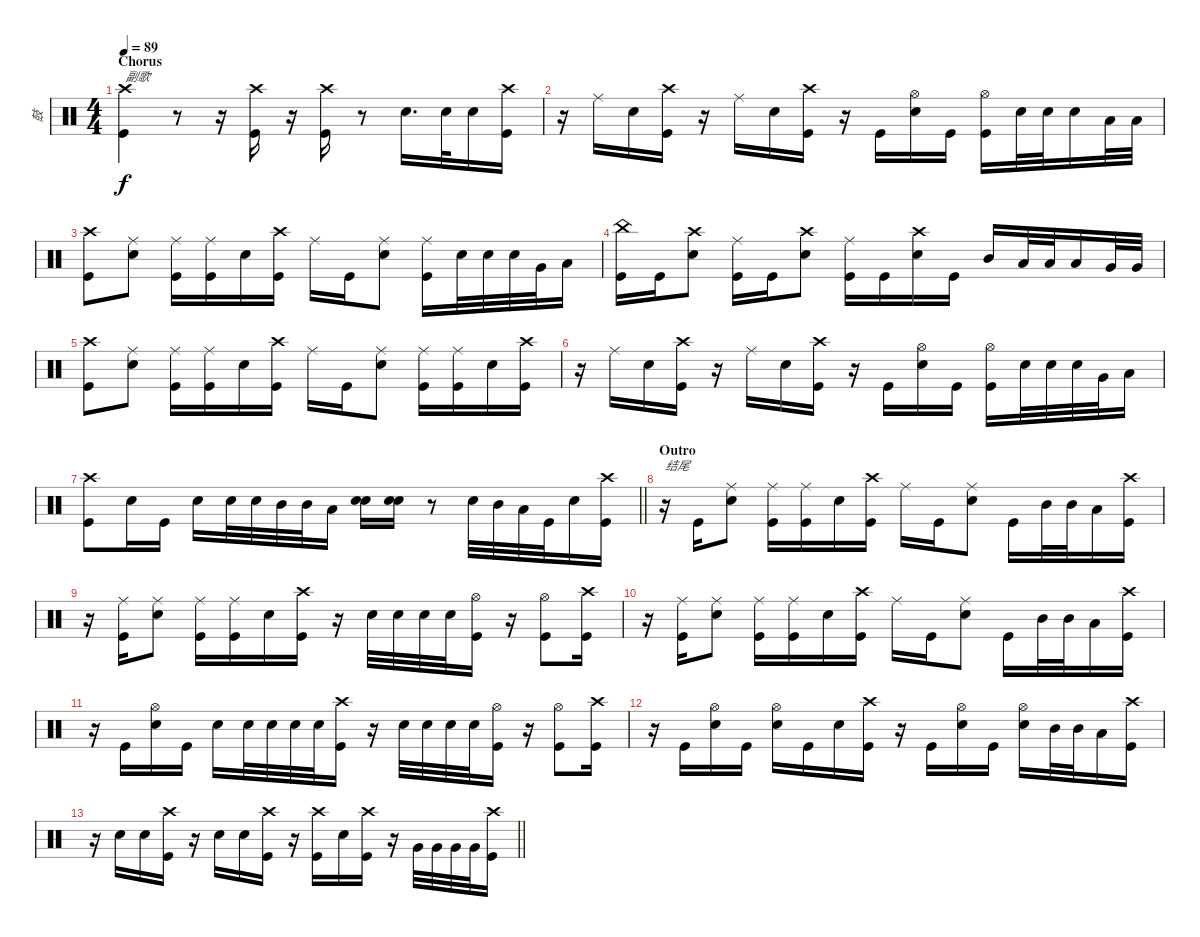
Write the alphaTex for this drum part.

\track ("鼓" "鼓") {instrument percussion}
\staff {score}
\articulation defaults
\ts (4 4)
\section ("" "Chorus")
\tempo 89
\clef neutral
\ks c
("Crash high (hit)" "Kick (hit)").4{txt "副歌" dy f} r.8 r.16 ("Kick (hit)" "Crash high (hit)").16 r.16 ("Kick (hit)" "Crash high (hit)").16 r.8 "Snare (hit) 2".16{d} "Snare (hit) 2".32 "Snare (hit) 2".16 ("Kick (hit)" "Crash high (hit)").16 |
r.16 "Ride (middle)".16 "Snare (hit) 2".16 ("Kick (hit)" "Crash high (hit)").16 r.16 "Ride (middle)".16 "Snare (hit) 2".16 ("Kick (hit)" "Crash high (hit)").16 r.16 "Kick (hit)".16 ("Snare (hit) 2" "Hi-Hat (open)").16 "Kick (hit)".16 ("Kick (hit)" "Hi-Hat (open)").16 "Snare (hit) 2".32 "Snare (hit) 2".32 "Snare (hit) 2".16 "Low Tom (hit)".32 "Low Tom (hit)".32 |
("Crash high (hit)" "Kick (hit)").8 ("Snare (hit) 2" "Ride (middle)").8 ("Kick (hit)" "Ride (middle)").16 ("Kick (hit)" "Ride (middle)").16 "Snare (hit) 2".16 ("Kick (hit)" "Crash high (hit)").16 "Ride (middle)".16 "Kick (hit)".16 ("Snare (hit) 2" "Ride (middle)").8 ("Ride (middle)" "Kick (hit)").16 "Snare (hit) 2".32 "Snare (hit) 2".32 "Snare (hit) 2".32 "Very Low Tom (hit)".32 "Low Floor Tom (hit)".16 |
("China (hit)" "Kick (hit)").16 "Kick (hit)".16 ("Snare (hit) 2" "Crash high (hit)").8 ("Ride (middle)" "Kick (hit)").16 "Kick (hit)".16 ("Snare (hit) 2" "Crash high (hit)").8 ("Ride (middle)" "Kick (hit)").16 "Kick (hit)".16 ("Snare (hit) 2" "Crash high (hit)").16 "Kick (hit)".16 "Mid Tom (hit)".16 "Low Tom (hit)".32 "Low Tom (hit)".32 "Low Tom (hit)".16 "Very Low Tom (hit)".32 "Very Low Tom (hit)".32 |
("Crash high (hit)" "Kick (hit)").8 ("Snare (hit) 2" "Ride (middle)").8 ("Kick (hit)" "Ride (middle)").16 ("Kick (hit)" "Ride (middle)").16 "Snare (hit) 2".16 ("Kick (hit)" "Crash high (hit)").16 "Ride (middle)".16 "Kick (hit)".16 ("Snare (hit) 2" "Ride (middle)").8 ("Kick (hit)" "Ride (middle)").16 ("Kick (hit)" "Ride (middle)").16 "Snare (hit) 2".16 ("Kick (hit)" "Crash high (hit)").16 |
r.16 "Ride (middle)".16 "Snare (hit) 2".16 ("Kick (hit)" "Crash high (hit)").16 r.16 "Ride (middle)".16 "Snare (hit) 2".16 ("Kick (hit)" "Crash high (hit)").16 r.16 "Kick (hit)".16 ("Snare (hit) 2" "Hi-Hat (open)").16 "Kick (hit)".16 ("Kick (hit)" "Hi-Hat (open)").16 "Snare (hit) 2".32 "Snare (hit) 2".32 "Snare (hit) 2".32 "Very Low Tom (hit)".32 "Low Floor Tom (hit)".16 |
\barLineRight lightlight
("Crash high (hit)" "Kick (hit)").8 "Snare (hit) 2".16 "Kick (hit)".16 "Snare (hit) 2".16 "Snare (hit) 2".32 "Snare (hit) 2".32 "Mid Tom (hit)".32 "Mid Tom (hit)".32 "Low Tom (hit)".16 ("Snare (hit) 2" "Snare (hit) 2").16 ("Snare (hit) 2" "Snare (hit) 2").16 r.8 "Snare (hit) 2".32 "Mid Tom (hit)".32 "Low Tom (hit)".32 "Kick (hit)".32 "Snare (hit) 2".16 ("Kick (hit)" "Crash high (hit)").16 |
\section ("" "Outro")
r.16{txt "结尾"} "Kick (hit)".16 ("Ride (middle)" "Snare (hit) 2").8 ("Kick (hit)" "Ride (middle)").16 ("Kick (hit)" "Ride (middle)").16 "Snare (hit) 2".16 ("Kick (hit)" "Crash high (hit)").16 "Ride (middle)".16 "Kick (hit)".16 ("Ride (middle)" "Snare (hit) 2").8 "Kick (hit)".16 "Mid Tom (hit)".32 "Mid Tom (hit)".32 "Low Tom (hit)".16 ("Kick (hit)" "Crash high (hit)").16 |
r.16 ("Kick (hit)" "Ride (middle)").16 ("Ride (middle)" "Snare (hit) 2").8 ("Kick (hit)" "Ride (middle)").16 ("Kick (hit)" "Ride (middle)").16 "Snare (hit) 2".16 ("Kick (hit)" "Crash high (hit)").16 r.16 "Snare (hit) 2".32 "Snare (hit) 2".32 "Snare (hit) 2".32 "Snare (hit) 2".32 ("Hi-Hat (open)" "Kick (hit)").16 r.16 ("Hi-Hat (open)" "Kick (hit)").8 ("Kick (hit)" "Crash high (hit)").16 |
r.16 ("Kick (hit)" "Ride (middle)").16 ("Ride (middle)" "Snare (hit) 2").8 ("Kick (hit)" "Ride (middle)").16 ("Kick (hit)" "Ride (middle)").16 "Snare (hit) 2".16 ("Kick (hit)" "Crash high (hit)").16 "Ride (middle)".16 "Kick (hit)".16 ("Ride (middle)" "Snare (hit) 2").8 "Kick (hit)".16 "Mid Tom (hit)".32 "Mid Tom (hit)".32 "Low Tom (hit)".16 ("Kick (hit)" "Crash high (hit)").16 |
r.16 "Kick (hit)".16 ("Snare (hit) 2" "Hi-Hat (open)").16 "Kick (hit)".16 "Snare (hit) 2".16 "Snare (hit) 2".32 "Snare (hit) 2".32 "Snare (hit) 2".32 "Snare (hit) 2".32 ("Kick (hit)" "Crash high (hit)").16 r.16 "Snare (hit) 2".32 "Snare (hit) 2".32 "Snare (hit) 2".32 "Snare (hit) 2".32 ("Hi-Hat (open)" "Kick (hit)").16 r.16 ("Hi-Hat (open)" "Kick (hit)").8 ("Kick (hit)" "Crash high (hit)").16 |
r.16 "Kick (hit)".16 ("Snare (hit) 2" "Hi-Hat (open)").16 "Kick (hit)".16 ("Snare (hit) 2" "Hi-Hat (open)").16 "Kick (hit)".16 "Snare (hit) 2".16 ("Kick (hit)" "Crash high (hit)").16 r.16 "Kick (hit)".16 ("Snare (hit) 2" "Hi-Hat (open)").16 "Kick (hit)".16 ("Snare (hit) 2" "Hi-Hat (open)").16 "Mid Tom (hit)".32 "Mid Tom (hit)".32 "Low Tom (hit)".16 ("Kick (hit)" "Crash high (hit)").16 |
\barLineRight lightlight
r.16 "Snare (hit) 2".16 "Snare (hit) 2".16 ("Kick (hit)" "Crash high (hit)").16 r.16 "Snare (hit) 2".16 "Snare (hit) 2".16 ("Kick (hit)" "Crash high (hit)").16 r.16 ("Crash high (hit)" "Kick (hit)").16 "Snare (hit) 2".16 ("Kick (hit)" "Crash high (hit)").16 r.16 "Very Low Tom (hit)".32 "Very Low Tom (hit)".32 "Very Low Tom (hit)".32 "Very Low Tom (hit)".32 ("Kick (hit)" "Crash high (hit)").16
